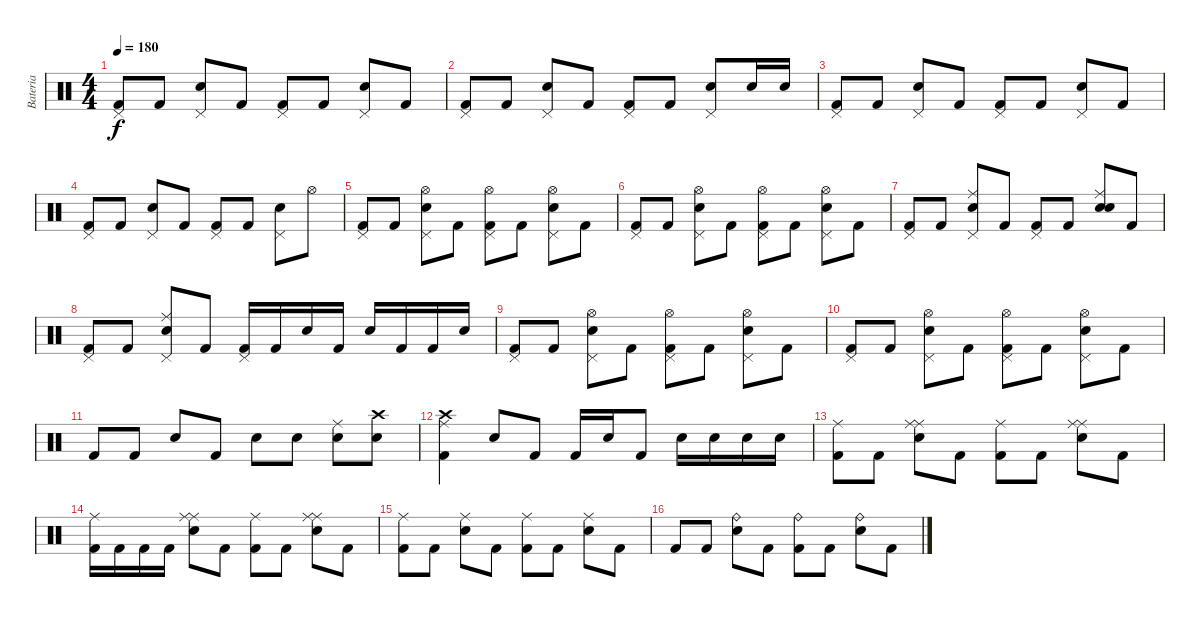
\track ("Bateria" "Bateria") {instrument percussion}
\staff {score}
\articulation defaults
\ts (4 4)
\tempo 180
\clef neutral
\ks c
("Kick (hit) 2" "Pedal Hi-Hat (hit)").8{dy f} "Kick (hit) 2".8 ("Electric Snare (hit)" "Pedal Hi-Hat (hit)").8 "Kick (hit) 2".8 ("Kick (hit) 2" "Pedal Hi-Hat (hit)").8 "Kick (hit) 2".8 ("Electric Snare (hit)" "Pedal Hi-Hat (hit)").8 "Kick (hit) 2".8 |
("Kick (hit) 2" "Pedal Hi-Hat (hit)").8 "Kick (hit) 2".8 ("Electric Snare (hit)" "Pedal Hi-Hat (hit)").8 "Kick (hit) 2".8 ("Kick (hit) 2" "Pedal Hi-Hat (hit)").8 "Kick (hit) 2".8 ("Electric Snare (hit)" "Pedal Hi-Hat (hit)").8 "Electric Snare (hit)".16 "Electric Snare (hit)".16 |
("Kick (hit) 2" "Pedal Hi-Hat (hit)").8 "Kick (hit) 2".8 ("Electric Snare (hit)" "Pedal Hi-Hat (hit)").8 "Kick (hit) 2".8 ("Kick (hit) 2" "Pedal Hi-Hat (hit)").8 "Kick (hit) 2".8 ("Electric Snare (hit)" "Pedal Hi-Hat (hit)").8 "Kick (hit) 2".8 |
("Kick (hit) 2" "Pedal Hi-Hat (hit)").8 "Kick (hit) 2".8 ("Electric Snare (hit)" "Pedal Hi-Hat (hit)").8 "Kick (hit) 2".8 ("Kick (hit) 2" "Pedal Hi-Hat (hit)").8 "Kick (hit) 2".8 ("Electric Snare (hit)" "Pedal Hi-Hat (hit)").8 "Hi-Hat (open)".8 |
("Kick (hit) 2" "Pedal Hi-Hat (hit)").8 "Kick (hit) 2".8 ("Electric Snare (hit)" "Pedal Hi-Hat (hit)" "Hi-Hat (open)").8 "Kick (hit) 2".8 ("Kick (hit) 2" "Pedal Hi-Hat (hit)" "Hi-Hat (open)").8 "Kick (hit) 2".8 ("Electric Snare (hit)" "Pedal Hi-Hat (hit)" "Hi-Hat (open)").8 "Kick (hit) 2".8 |
("Kick (hit) 2" "Pedal Hi-Hat (hit)").8 "Kick (hit) 2".8 ("Electric Snare (hit)" "Pedal Hi-Hat (hit)" "Hi-Hat (open)").8 "Kick (hit) 2".8 ("Kick (hit) 2" "Pedal Hi-Hat (hit)" "Hi-Hat (open)").8 "Kick (hit) 2".8 ("Electric Snare (hit)" "Pedal Hi-Hat (hit)" "Hi-Hat (open)").8 "Kick (hit) 2".8 |
("Kick (hit) 2" "Pedal Hi-Hat (hit)").8 "Kick (hit) 2".8 ("Electric Snare (hit)" "Ride (middle)" "Pedal Hi-Hat (hit)").8 "Kick (hit) 2".8 ("Kick (hit) 2" "Pedal Hi-Hat (hit)").8 "Kick (hit) 2".8 ("Electric Snare (hit)" "Ride (middle)" "Snare (hit)").8 "Kick (hit) 2".8 |
("Kick (hit) 2" "Pedal Hi-Hat (hit)").8 "Kick (hit) 2".8 ("Electric Snare (hit)" "Ride (middle)" "Pedal Hi-Hat (hit)").8 "Kick (hit) 2".8 ("Kick (hit) 2" "Pedal Hi-Hat (hit)").16 "Kick (hit) 2".16 "Electric Snare (hit)".16 "Kick (hit) 2".16 "Electric Snare (hit)".16 "Kick (hit) 2".16 "Kick (hit) 2".16 "Electric Snare (hit)".16 |
("Kick (hit) 2" "Pedal Hi-Hat (hit)").8 "Kick (hit) 2".8 ("Electric Snare (hit)" "Pedal Hi-Hat (hit)" "Hi-Hat (open)").8 "Kick (hit) 2".8 ("Kick (hit) 2" "Pedal Hi-Hat (hit)" "Hi-Hat (open)").8 "Kick (hit) 2".8 ("Electric Snare (hit)" "Pedal Hi-Hat (hit)" "Hi-Hat (open)").8 "Kick (hit) 2".8 |
("Kick (hit) 2" "Pedal Hi-Hat (hit)").8 "Kick (hit) 2".8 ("Electric Snare (hit)" "Pedal Hi-Hat (hit)" "Hi-Hat (open)").8 "Kick (hit) 2".8 ("Kick (hit) 2" "Pedal Hi-Hat (hit)" "Hi-Hat (open)").8 "Kick (hit) 2".8 ("Electric Snare (hit)" "Pedal Hi-Hat (hit)" "Hi-Hat (open)").8 "Kick (hit) 2".8 |
"Kick (hit) 2".8 "Kick (hit) 2".8 "Electric Snare (hit)".8 "Kick (hit) 2".8 "Electric Snare (hit)".8 "Electric Snare (hit)".8 ("Electric Snare (hit)" "Ride (middle)").8 ("Electric Snare (hit)" "Crash high (hit)").8 |
("Kick (hit) 2" "Ride (middle)" "Crash high (hit)").4 "Electric Snare (hit)".8 "Kick (hit) 2".8 "Kick (hit) 2".16 "Electric Snare (hit)".16 "Kick (hit) 2".8 "Electric Snare (hit)".16 "Electric Snare (hit)".16 "Electric Snare (hit)".16 "Electric Snare (hit)".16 |
("Kick (hit) 2" "Ride (middle)").8 "Kick (hit) 2".8 ("Electric Snare (hit)" "Ride (middle)" "Ride (middle)").8 "Kick (hit) 2".8 ("Kick (hit) 2" "Ride (middle)").8 "Kick (hit) 2".8 ("Electric Snare (hit)" "Ride (middle)" "Ride (middle)").8 "Kick (hit) 2".8 |
("Kick (hit) 2" "Ride (middle)").16 "Kick (hit) 2".16 "Kick (hit) 2".16 "Kick (hit) 2".16 ("Electric Snare (hit)" "Ride (middle)" "Ride (middle)").8 "Kick (hit) 2".8 ("Kick (hit) 2" "Ride (middle)").8 "Kick (hit) 2".8 ("Electric Snare (hit)" "Ride (middle)" "Ride (middle)").8 "Kick (hit) 2".8 |
("Kick (hit) 2" "Ride (middle)").8 "Kick (hit) 2".8 ("Electric Snare (hit)" "Ride (middle)").8 "Kick (hit) 2".8 ("Kick (hit) 2" "Ride (middle)").8 "Kick (hit) 2".8 ("Electric Snare (hit)" "Ride (middle)").8 "Kick (hit) 2".8 |
"Kick (hit) 2".8 "Kick (hit) 2".8 ("Electric Snare (hit)" "Ride (bell)").8 "Kick (hit) 2".8 ("Kick (hit) 2" "Ride (bell)").8 "Kick (hit) 2".8 ("Electric Snare (hit)" "Ride (bell)").8 "Kick (hit) 2".8
